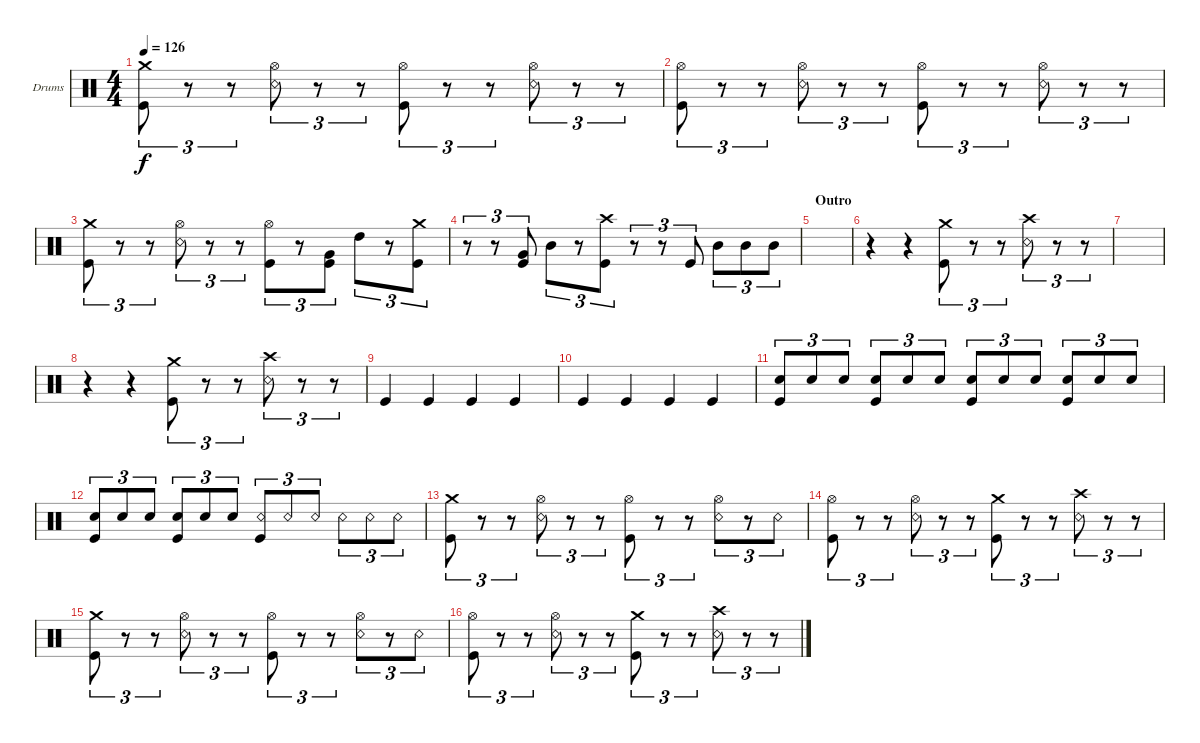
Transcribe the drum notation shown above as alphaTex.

\defaultSystemsLayout 4
\bracketExtendMode groupsimilarinstruments
\firstSystemTrackNameOrientation horizontal
\otherSystemsTrackNameOrientation horizontal
\track ("Dominic Howard" "Drums") {instrument percussion}
\staff {score}
\articulation defaults
\ts (4 4)
\tempo 126
\clef neutral
\ks c
("Kick (hit)" "Crash medium (hit)").8{tu (3 2) dy f} r.8{tu (3 2)} r.8{tu (3 2)} ("Snare (rim shot)" "Hi-Hat (open)").8{tu (3 2)} r.8{tu (3 2)} r.8{tu (3 2)} ("Kick (hit)" "Hi-Hat (open)").8{tu (3 2)} r.8{tu (3 2)} r.8{tu (3 2)} ("Snare (rim shot)" "Hi-Hat (open)").8{tu (3 2)} r.8{tu (3 2)} r.8{tu (3 2)} |
("Kick (hit)" "Hi-Hat (open)").8{tu (3 2)} r.8{tu (3 2)} r.8{tu (3 2)} ("Snare (rim shot)" "Hi-Hat (open)").8{tu (3 2)} r.8{tu (3 2)} r.8{tu (3 2)} ("Kick (hit)" "Hi-Hat (open)").8{tu (3 2)} r.8{tu (3 2)} r.8{tu (3 2)} ("Snare (rim shot)" "Hi-Hat (open)").8{tu (3 2)} r.8{tu (3 2)} r.8{tu (3 2)} |
("Kick (hit)" "Crash medium (hit)").8{tu (3 2)} r.8{tu (3 2)} r.8{tu (3 2)} ("Snare (rim shot)" "Hi-Hat (open)").8{tu (3 2)} r.8{tu (3 2)} r.8{tu (3 2)} ("Kick (hit)" "Hi-Hat (open)").8{tu (3 2)} r.8{tu (3 2)} ("Kick (hit)" "Very Low Tom (hit)").8{tu (3 2)} "High Tom (hit)".8{tu (3 2)} r.8{tu (3 2)} ("Kick (hit)" "Crash medium (hit)").8{tu (3 2)} |
r.8{tu (3 2)} r.8{tu (3 2)} ("Kick (hit)" "Very Low Tom (hit)").8{tu (3 2)} "Mid Tom (hit)".8{tu (3 2)} r.8{tu (3 2)} ("Kick (hit)" "Crash high (hit)").8{tu (3 2)} r.8{tu (3 2)} r.8{tu (3 2)} "Kick (hit)".8{tu (3 2)} "Mid Tom (hit)".8{tu (3 2)} "Mid Tom (hit)".8{tu (3 2)} "Mid Tom (hit)".8{tu (3 2)} |
\section ("" "Outro")
|
r.4 r.4 ("Kick (hit)" "Crash medium (hit)").8{tu (3 2)} r.8{tu (3 2)} r.8{tu (3 2)} ("Snare (rim shot)" "Crash high (hit)").8{tu (3 2)} r.8{tu (3 2)} r.8{tu (3 2)} |
|
r.4 r.4 ("Kick (hit)" "Crash medium (hit)").8{tu (3 2)} r.8{tu (3 2)} r.8{tu (3 2)} ("Snare (rim shot)" "Crash high (hit)").8{tu (3 2)} r.8{tu (3 2)} r.8{tu (3 2)} |
"Kick (hit)".4 "Kick (hit)".4 "Kick (hit)".4 "Kick (hit)".4 |
"Kick (hit)".4 "Kick (hit)".4 "Kick (hit)".4 "Kick (hit)".4 |
("Snare (hit) 2" "Kick (hit)").8{tu (3 2)} "Snare (hit) 2".8{tu (3 2)} "Snare (hit) 2".8{tu (3 2)} ("Snare (hit) 2" "Kick (hit)").8{tu (3 2)} "Snare (hit) 2".8{tu (3 2)} "Snare (hit) 2".8{tu (3 2)} ("Snare (hit) 2" "Kick (hit)").8{tu (3 2)} "Snare (hit) 2".8{tu (3 2)} "Snare (hit) 2".8{tu (3 2)} ("Snare (hit) 2" "Kick (hit)").8{tu (3 2)} "Snare (hit) 2".8{tu (3 2)} "Snare (hit) 2".8{tu (3 2)} |
("Snare (hit) 2" "Kick (hit)").8{tu (3 2)} "Snare (hit) 2".8{tu (3 2)} "Snare (hit) 2".8{tu (3 2)} ("Snare (hit) 2" "Kick (hit)").8{tu (3 2)} "Snare (hit) 2".8{tu (3 2)} "Snare (hit) 2".8{tu (3 2)} ("Snare (rim shot)" "Kick (hit)").8{tu (3 2)} "Snare (rim shot)".8{tu (3 2)} "Snare (rim shot)".8{tu (3 2)} "Snare (rim shot)".8{tu (3 2)} "Snare (rim shot)".8{tu (3 2)} "Snare (rim shot)".8{tu (3 2)} |
("Kick (hit)" "Crash medium (hit)").8{tu (3 2)} r.8{tu (3 2)} r.8{tu (3 2)} ("Snare (rim shot)" "Hi-Hat (open)").8{tu (3 2)} r.8{tu (3 2)} r.8{tu (3 2)} ("Kick (hit)" "Hi-Hat (open)").8{tu (3 2)} r.8{tu (3 2)} r.8{tu (3 2)} ("Snare (rim shot)" "Hi-Hat (open)").8{tu (3 2)} r.8{tu (3 2)} "Snare (rim shot)".8{tu (3 2)} |
("Kick (hit)" "Hi-Hat (open)").8{tu (3 2)} r.8{tu (3 2)} r.8{tu (3 2)} ("Snare (rim shot)" "Hi-Hat (open)").8{tu (3 2)} r.8{tu (3 2)} r.8{tu (3 2)} ("Kick (hit)" "Crash medium (hit)").8{tu (3 2)} r.8{tu (3 2)} r.8{tu (3 2)} ("Snare (rim shot)" "Crash high (hit)").8{tu (3 2)} r.8{tu (3 2)} r.8{tu (3 2)} |
("Kick (hit)" "Crash medium (hit)").8{tu (3 2)} r.8{tu (3 2)} r.8{tu (3 2)} ("Snare (rim shot)" "Hi-Hat (open)").8{tu (3 2)} r.8{tu (3 2)} r.8{tu (3 2)} ("Kick (hit)" "Hi-Hat (open)").8{tu (3 2)} r.8{tu (3 2)} r.8{tu (3 2)} ("Snare (rim shot)" "Hi-Hat (open)").8{tu (3 2)} r.8{tu (3 2)} "Snare (rim shot)".8{tu (3 2)} |
("Kick (hit)" "Hi-Hat (open)").8{tu (3 2)} r.8{tu (3 2)} r.8{tu (3 2)} ("Snare (rim shot)" "Hi-Hat (open)").8{tu (3 2)} r.8{tu (3 2)} r.8{tu (3 2)} ("Kick (hit)" "Crash medium (hit)").8{tu (3 2)} r.8{tu (3 2)} r.8{tu (3 2)} ("Snare (rim shot)" "Crash high (hit)").8{tu (3 2)} r.8{tu (3 2)} r.8{tu (3 2)}
